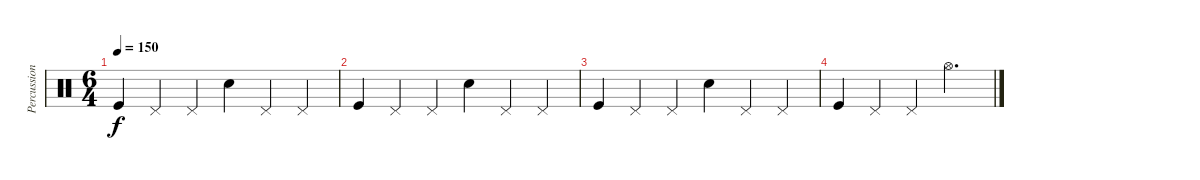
\track ("Percussion" "Percussion") {instrument percussion}
\staff {score}
\articulation defaults
\ts (6 4)
\tempo 150
\clef neutral
\ks c "Kick (hit)".4{dy f} "Pedal Hi-Hat (hit)".4 "Pedal Hi-Hat (hit)".4 "Snare (hit) 2".4 "Pedal Hi-Hat (hit)".4 "Pedal Hi-Hat (hit)".4
|
"Kick (hit)".4 "Pedal Hi-Hat (hit)".4 "Pedal Hi-Hat (hit)".4 "Snare (hit) 2".4 "Pedal Hi-Hat (hit)".4 "Pedal Hi-Hat (hit)".4 |
"Kick (hit)".4 "Pedal Hi-Hat (hit)".4 "Pedal Hi-Hat (hit)".4 "Snare (hit) 2".4 "Pedal Hi-Hat (hit)".4 "Pedal Hi-Hat (hit)".4 |
"Kick (hit)".4 "Pedal Hi-Hat (hit)".4 "Pedal Hi-Hat (hit)".4 "Hi-Hat (open)".2{d}
